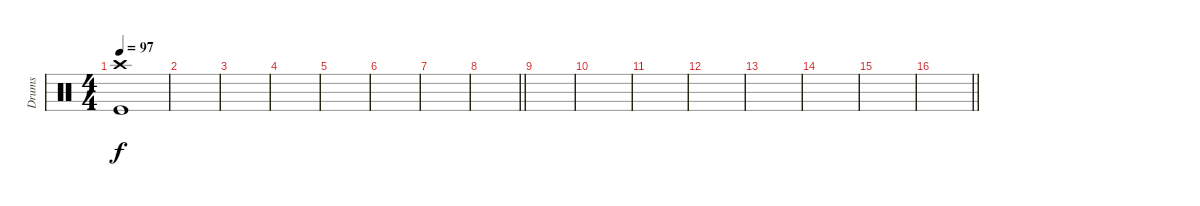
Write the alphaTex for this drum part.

\track ("Drums" "Drums") {instrument percussion}
\staff
\articulation defaults
\ts (4 4)
\section ("" "")
\tempo 97
\clef neutral
\ks c
("Crash high (hit)" "Kick (hit)").1{dy f} |
|
|
|
|
|
|
\barLineRight lightlight
|
|
|
|
|
|
|
|
\barLineRight lightlight
